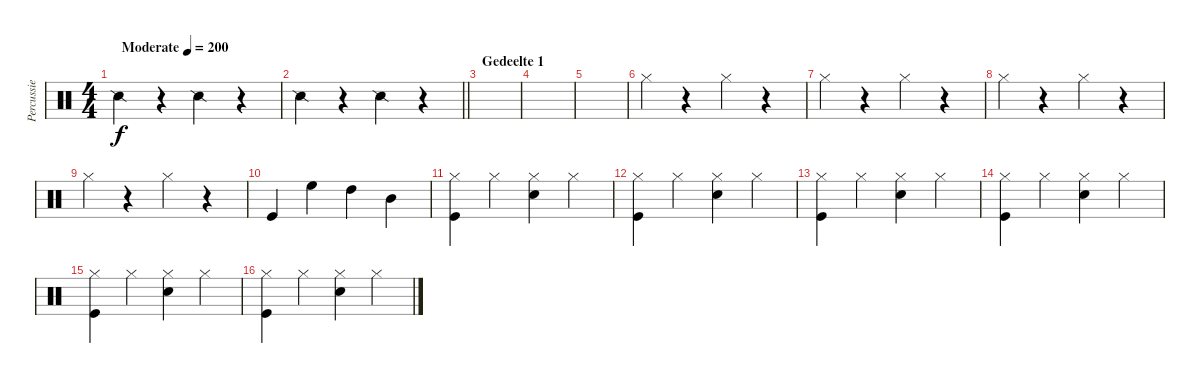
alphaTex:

\track ("Percussie" "Percussie") {instrument percussion}
\staff {score}
\articulation defaults
\ts (4 4)
\tempo (200 "Moderate")
\clef neutral
\ks c "Snare (side stick) 2".4{dy f}
r.4 "Snare (side stick) 2".4 r.4 |
\barLineRight lightlight "Snare (side stick) 2".4
r.4 "Snare (side stick) 2".4 r.4 |
\section ("" "Gedeelte 1")
|
|
|
"Hi-Hat (closed)".4 r.4 "Hi-Hat (closed)".4 r.4 |
"Hi-Hat (closed)".4 r.4 "Hi-Hat (closed)".4 r.4 |
"Hi-Hat (closed)".4 r.4 "Hi-Hat (closed)".4 r.4 |
"Hi-Hat (closed)".4 r.4 "Hi-Hat (closed)".4 r.4 |
"Kick (hit)".4 "High Floor Tom (hit)".4 "High Tom (hit)".4 "Mid Tom (hit)".4 |
("Hi-Hat (closed)" "Kick (hit)").4 "Hi-Hat (closed)".4 ("Electric Snare (hit)" "Hi-Hat (closed)").4 "Hi-Hat (closed)".4 |
("Hi-Hat (closed)" "Kick (hit)").4 "Hi-Hat (closed)".4 ("Electric Snare (hit)" "Hi-Hat (closed)").4 "Hi-Hat (closed)".4 |
("Hi-Hat (closed)" "Kick (hit)").4 "Hi-Hat (closed)".4 ("Electric Snare (hit)" "Hi-Hat (closed)").4 "Hi-Hat (closed)".4 |
("Hi-Hat (closed)" "Kick (hit)").4 "Hi-Hat (closed)".4 ("Electric Snare (hit)" "Hi-Hat (closed)").4 "Hi-Hat (closed)".4 |
("Hi-Hat (closed)" "Kick (hit)").4 "Hi-Hat (closed)".4 ("Electric Snare (hit)" "Hi-Hat (closed)").4 "Hi-Hat (closed)".4 |
("Hi-Hat (closed)" "Kick (hit)").4 "Hi-Hat (closed)".4 ("Electric Snare (hit)" "Hi-Hat (closed)").4 "Hi-Hat (closed)".4
